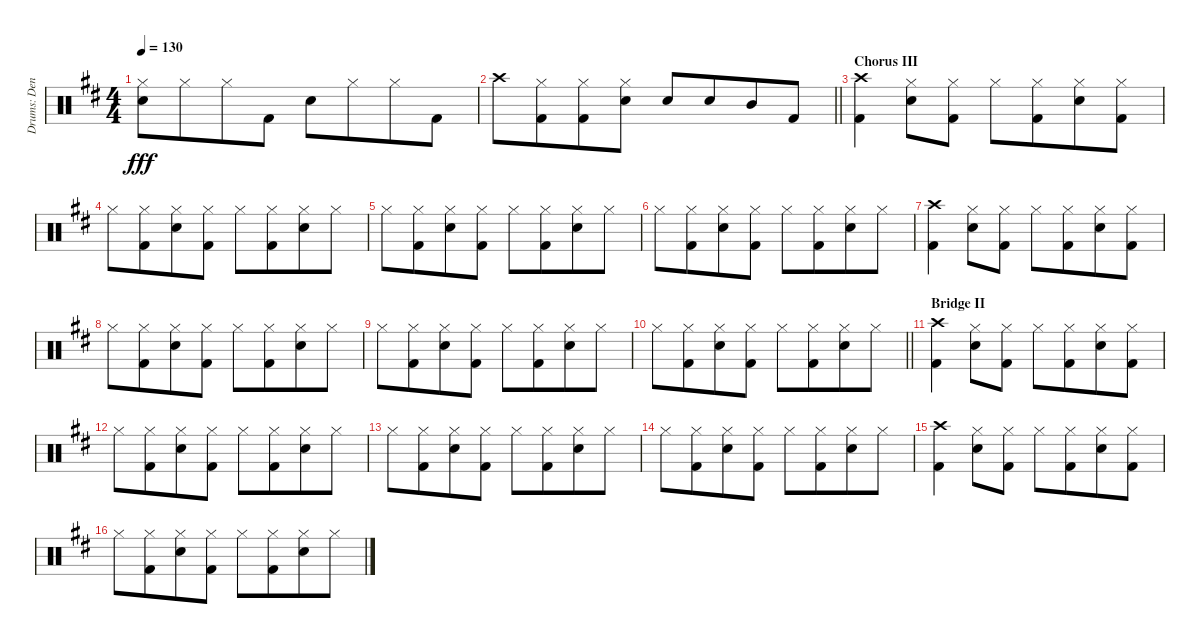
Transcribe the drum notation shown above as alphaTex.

\track ("Drums: Denny" "Drums: Den") {instrument percussion}
\staff {score}
\articulation defaults
\ts (4 4)
\tempo 130
\clef neutral
\ks d
("Hi-Hat (closed)" "Electric Snare (hit)").8{dy fff} "Hi-Hat (closed)".8{beam merge} "Hi-Hat (closed)".8 "Kick (hit) 2".8 "Electric Snare (hit)".8 "Hi-Hat (closed)".8{beam merge} "Hi-Hat (closed)".8 "Kick (hit) 2".8 |
\barLineRight lightlight "Crash high (hit)".8
("Hi-Hat (closed)" "Kick (hit) 2").8{beam merge} ("Hi-Hat (closed)" "Kick (hit) 2").8{beam merge} ("Hi-Hat (closed)" "Electric Snare (hit)").8{beam split} "Electric Snare (hit)".8{beam merge} "Electric Snare (hit)".8{beam merge} "Mid Tom (hit)".8 "Kick (hit) 2".8 |
\section ("" "Chorus III")
("Crash high (hit)" "Kick (hit) 2").4 ("Hi-Hat (closed)" "Electric Snare (hit)").8 ("Hi-Hat (closed)" "Kick (hit) 2").8 "Hi-Hat (closed)".8 ("Hi-Hat (closed)" "Kick (hit) 2").8{beam merge} ("Hi-Hat (closed)" "Electric Snare (hit)").8 ("Hi-Hat (closed)" "Kick (hit) 2").8 |
"Hi-Hat (closed)".8 ("Hi-Hat (closed)" "Kick (hit) 2").8{beam merge} ("Hi-Hat (closed)" "Electric Snare (hit)").8 ("Hi-Hat (closed)" "Kick (hit) 2").8 "Hi-Hat (closed)".8 ("Hi-Hat (closed)" "Kick (hit) 2").8{beam merge} ("Hi-Hat (closed)" "Electric Snare (hit)").8 "Hi-Hat (closed)".8 |
"Hi-Hat (closed)".8 ("Hi-Hat (closed)" "Kick (hit) 2").8{beam merge} ("Hi-Hat (closed)" "Electric Snare (hit)").8 ("Hi-Hat (closed)" "Kick (hit) 2").8 "Hi-Hat (closed)".8 ("Hi-Hat (closed)" "Kick (hit) 2").8{beam merge} ("Hi-Hat (closed)" "Electric Snare (hit)").8 "Hi-Hat (closed)".8 |
"Hi-Hat (closed)".8 ("Hi-Hat (closed)" "Kick (hit) 2").8{beam merge} ("Hi-Hat (closed)" "Electric Snare (hit)").8 ("Hi-Hat (closed)" "Kick (hit) 2").8 "Hi-Hat (closed)".8 ("Hi-Hat (closed)" "Kick (hit) 2").8{beam merge} ("Hi-Hat (closed)" "Electric Snare (hit)").8 "Hi-Hat (closed)".8 |
("Crash high (hit)" "Kick (hit) 2").4 ("Hi-Hat (closed)" "Electric Snare (hit)").8 ("Hi-Hat (closed)" "Kick (hit) 2").8 "Hi-Hat (closed)".8 ("Hi-Hat (closed)" "Kick (hit) 2").8{beam merge} ("Hi-Hat (closed)" "Electric Snare (hit)").8 ("Hi-Hat (closed)" "Kick (hit) 2").8 |
"Hi-Hat (closed)".8 ("Hi-Hat (closed)" "Kick (hit) 2").8{beam merge} ("Hi-Hat (closed)" "Electric Snare (hit)").8 ("Hi-Hat (closed)" "Kick (hit) 2").8 "Hi-Hat (closed)".8 ("Hi-Hat (closed)" "Kick (hit) 2").8{beam merge} ("Hi-Hat (closed)" "Electric Snare (hit)").8 "Hi-Hat (closed)".8 |
"Hi-Hat (closed)".8 ("Hi-Hat (closed)" "Kick (hit) 2").8{beam merge} ("Hi-Hat (closed)" "Electric Snare (hit)").8 ("Hi-Hat (closed)" "Kick (hit) 2").8 "Hi-Hat (closed)".8 ("Hi-Hat (closed)" "Kick (hit) 2").8{beam merge} ("Hi-Hat (closed)" "Electric Snare (hit)").8 "Hi-Hat (closed)".8 |
\barLineRight lightlight "Hi-Hat (closed)".8
("Hi-Hat (closed)" "Kick (hit) 2").8{beam merge} ("Hi-Hat (closed)" "Electric Snare (hit)").8 ("Hi-Hat (closed)" "Kick (hit) 2").8 "Hi-Hat (closed)".8 ("Hi-Hat (closed)" "Kick (hit) 2").8{beam merge} ("Hi-Hat (closed)" "Electric Snare (hit)").8 "Hi-Hat (closed)".8 |
\section ("" "Bridge II")
("Crash high (hit)" "Kick (hit) 2").4 ("Hi-Hat (closed)" "Electric Snare (hit)").8 ("Hi-Hat (closed)" "Kick (hit) 2").8 "Hi-Hat (closed)".8 ("Hi-Hat (closed)" "Kick (hit) 2").8{beam merge} ("Hi-Hat (closed)" "Electric Snare (hit)").8 ("Hi-Hat (closed)" "Kick (hit) 2").8 |
"Hi-Hat (closed)".8 ("Hi-Hat (closed)" "Kick (hit) 2").8{beam merge} ("Hi-Hat (closed)" "Electric Snare (hit)").8 ("Hi-Hat (closed)" "Kick (hit) 2").8 "Hi-Hat (closed)".8 ("Hi-Hat (closed)" "Kick (hit) 2").8{beam merge} ("Hi-Hat (closed)" "Electric Snare (hit)").8 "Hi-Hat (closed)".8 |
"Hi-Hat (closed)".8 ("Hi-Hat (closed)" "Kick (hit) 2").8{beam merge} ("Hi-Hat (closed)" "Electric Snare (hit)").8 ("Hi-Hat (closed)" "Kick (hit) 2").8 "Hi-Hat (closed)".8 ("Hi-Hat (closed)" "Kick (hit) 2").8{beam merge} ("Hi-Hat (closed)" "Electric Snare (hit)").8 "Hi-Hat (closed)".8 |
"Hi-Hat (closed)".8 ("Hi-Hat (closed)" "Kick (hit) 2").8{beam merge} ("Hi-Hat (closed)" "Electric Snare (hit)").8 ("Hi-Hat (closed)" "Kick (hit) 2").8 "Hi-Hat (closed)".8 ("Hi-Hat (closed)" "Kick (hit) 2").8{beam merge} ("Hi-Hat (closed)" "Electric Snare (hit)").8 "Hi-Hat (closed)".8 |
("Crash high (hit)" "Kick (hit) 2").4 ("Hi-Hat (closed)" "Electric Snare (hit)").8 ("Hi-Hat (closed)" "Kick (hit) 2").8 "Hi-Hat (closed)".8 ("Hi-Hat (closed)" "Kick (hit) 2").8{beam merge} ("Hi-Hat (closed)" "Electric Snare (hit)").8 ("Hi-Hat (closed)" "Kick (hit) 2").8 |
"Hi-Hat (closed)".8 ("Hi-Hat (closed)" "Kick (hit) 2").8{beam merge} ("Hi-Hat (closed)" "Electric Snare (hit)").8 ("Hi-Hat (closed)" "Kick (hit) 2").8 "Hi-Hat (closed)".8 ("Hi-Hat (closed)" "Kick (hit) 2").8{beam merge} ("Hi-Hat (closed)" "Electric Snare (hit)").8 "Hi-Hat (closed)".8
